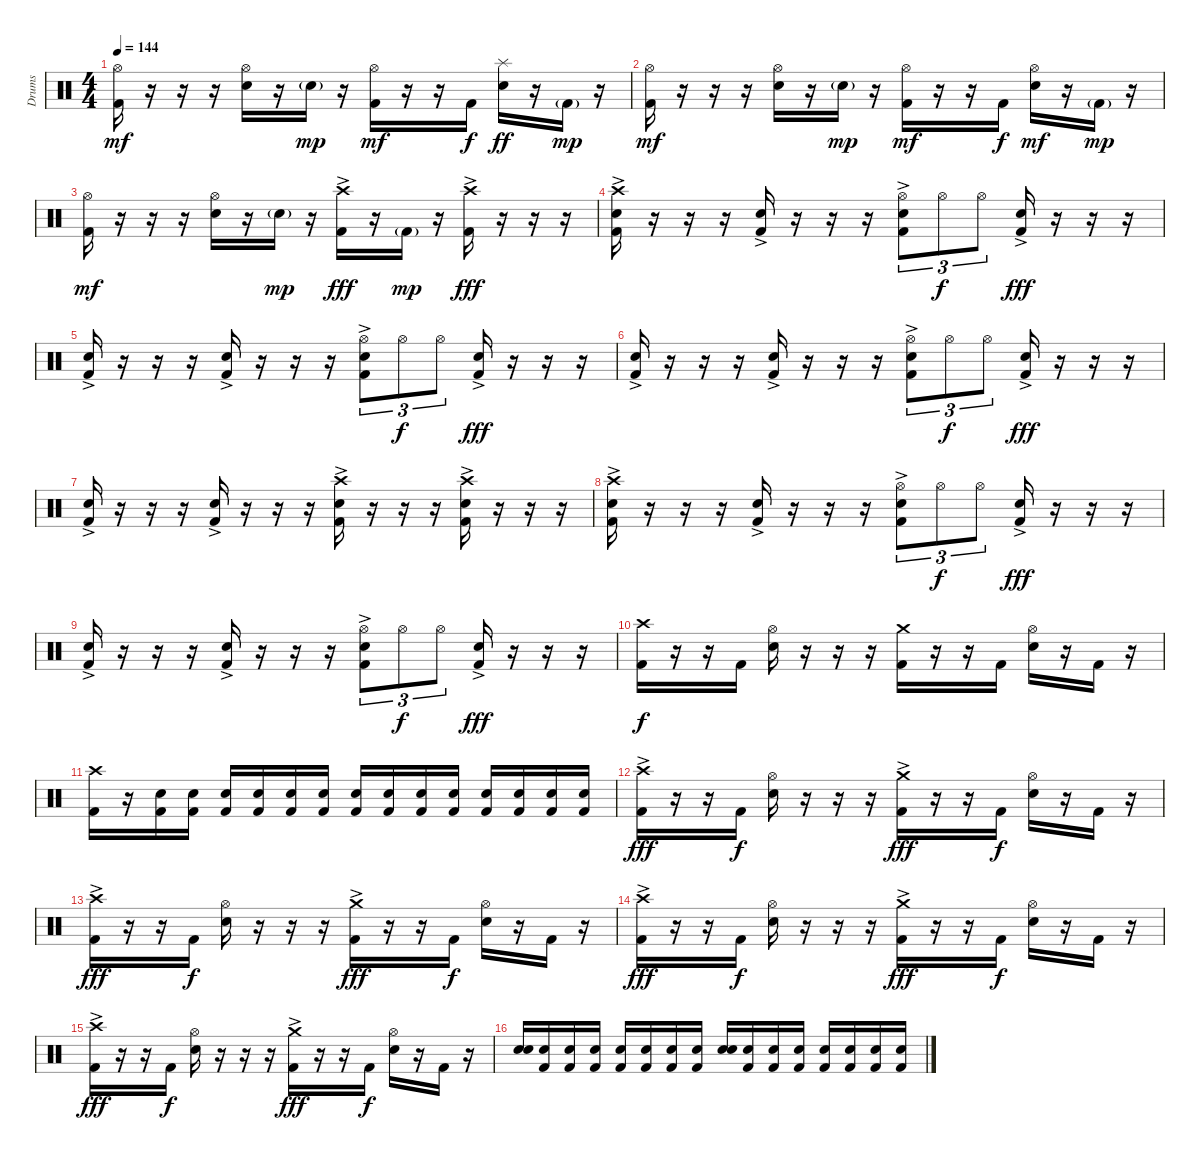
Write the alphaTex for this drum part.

\track ("Drums" "Drums") {instrument percussion}
\staff {score}
\articulation defaults
\ts (4 4)
\tempo 144
\clef neutral
\ks c
("Hi-Hat (open)" "Kick (hit) 2").16{dy mf} r.16 r.16 r.16 ("Hi-Hat (open)" "Electric Snare (hit)").16 r.16 "Electric Snare (hit)"{g}.16{dy mp} r.16 ("Hi-Hat (open)" "Kick (hit) 2").16{dy mf} r.16 r.16 "Kick (hit) 2".16{dy f} ("Splash (hit)" "Electric Snare (hit)").16{dy ff} r.16 "Kick (hit) 2"{g}.16{dy mp} r.16 |
("Hi-Hat (open)" "Kick (hit) 2").16{dy mf} r.16 r.16 r.16 ("Hi-Hat (open)" "Electric Snare (hit)").16 r.16 "Electric Snare (hit)"{g}.16{dy mp} r.16 ("Hi-Hat (open)" "Kick (hit) 2").16{dy mf} r.16 r.16 "Kick (hit) 2".16{dy f} ("Hi-Hat (open)" "Electric Snare (hit)").16{dy mf} r.16 "Kick (hit) 2"{g}.16{dy mp} r.16 |
("Hi-Hat (open)" "Kick (hit) 2").16{dy mf} r.16 r.16 r.16 ("Hi-Hat (open)" "Electric Snare (hit)").16 r.16 "Electric Snare (hit)"{g}.16{dy mp} r.16 ("Crash high (hit)"{ac} "Kick (hit) 2"{ac}).16{dy fff} r.16 "Kick (hit) 2"{g}.16{dy mp} r.16 ("Crash high (hit)"{ac} "Kick (hit) 2"{ac}).16{dy fff} r.16 r.16 r.16 |
("Crash high (hit)"{ac} "Electric Snare (hit)"{ac} "Kick (hit) 2"{ac}).16 r.16 r.16 r.16 ("Electric Snare (hit)"{ac} "Kick (hit) 2"{ac}).16 r.16 r.16 r.16 ("Hi-Hat (open)" "Electric Snare (hit)"{ac} "Kick (hit) 2"{ac}).8{tu (3 2)} "Hi-Hat (open)".8{tu (3 2) dy f} "Hi-Hat (open)".8{tu (3 2)} ("Electric Snare (hit)"{ac} "Kick (hit) 2"{ac}).16{dy fff} r.16 r.16 r.16 |
("Electric Snare (hit)"{ac} "Kick (hit) 2"{ac}).16 r.16 r.16 r.16 ("Electric Snare (hit)"{ac} "Kick (hit) 2"{ac}).16 r.16 r.16 r.16 ("Hi-Hat (open)" "Electric Snare (hit)"{ac} "Kick (hit) 2"{ac}).8{tu (3 2)} "Hi-Hat (open)".8{tu (3 2) dy f} "Hi-Hat (open)".8{tu (3 2)} ("Electric Snare (hit)"{ac} "Kick (hit) 2"{ac}).16{dy fff} r.16 r.16 r.16 |
("Electric Snare (hit)"{ac} "Kick (hit) 2"{ac}).16 r.16 r.16 r.16 ("Electric Snare (hit)"{ac} "Kick (hit) 2"{ac}).16 r.16 r.16 r.16 ("Hi-Hat (open)" "Electric Snare (hit)"{ac} "Kick (hit) 2"{ac}).8{tu (3 2)} "Hi-Hat (open)".8{tu (3 2) dy f} "Hi-Hat (open)".8{tu (3 2)} ("Electric Snare (hit)"{ac} "Kick (hit) 2"{ac}).16{dy fff} r.16 r.16 r.16 |
("Electric Snare (hit)"{ac} "Kick (hit) 2"{ac}).16 r.16 r.16 r.16 ("Electric Snare (hit)"{ac} "Kick (hit) 2"{ac}).16 r.16 r.16 r.16 ("Crash high (hit)"{ac} "Electric Snare (hit)"{ac} "Kick (hit) 2"{ac}).16 r.16 r.16 r.16 ("Crash high (hit)"{ac} "Electric Snare (hit)"{ac} "Kick (hit) 2"{ac}).16 r.16 r.16 r.16 |
("Crash high (hit)"{ac} "Electric Snare (hit)"{ac} "Kick (hit) 2"{ac}).16 r.16 r.16 r.16 ("Electric Snare (hit)"{ac} "Kick (hit) 2"{ac}).16 r.16 r.16 r.16 ("Hi-Hat (open)" "Electric Snare (hit)"{ac} "Kick (hit) 2"{ac}).8{tu (3 2)} "Hi-Hat (open)".8{tu (3 2) dy f} "Hi-Hat (open)".8{tu (3 2)} ("Electric Snare (hit)"{ac} "Kick (hit) 2"{ac}).16{dy fff} r.16 r.16 r.16 |
("Electric Snare (hit)"{ac} "Kick (hit) 2"{ac}).16 r.16 r.16 r.16 ("Electric Snare (hit)"{ac} "Kick (hit) 2"{ac}).16 r.16 r.16 r.16 ("Hi-Hat (open)" "Electric Snare (hit)"{ac} "Kick (hit) 2"{ac}).8{tu (3 2)} "Hi-Hat (open)".8{tu (3 2) dy f} "Hi-Hat (open)".8{tu (3 2)} ("Electric Snare (hit)"{ac} "Kick (hit) 2"{ac}).16{dy fff} r.16 r.16 r.16 |
("Crash high (hit)" "Kick (hit) 2").16{dy f} r.16 r.16 "Kick (hit) 2".16 ("Hi-Hat (open)" "Electric Snare (hit)").16 r.16 r.16 r.16 ("Crash medium (hit)" "Kick (hit) 2").16 r.16 r.16 "Kick (hit) 2".16 ("Hi-Hat (open)" "Electric Snare (hit)").16 r.16 "Kick (hit) 2".16 r.16 |
("Crash high (hit)" "Kick (hit) 2").16 r.16 ("Electric Snare (hit)" "Kick (hit) 2").16 ("Electric Snare (hit)" "Kick (hit) 2").16 ("Electric Snare (hit)" "Kick (hit) 2").16 ("Electric Snare (hit)" "Kick (hit) 2").16 ("Electric Snare (hit)" "Kick (hit) 2").16 ("Electric Snare (hit)" "Kick (hit) 2").16 ("Electric Snare (hit)" "Kick (hit) 2").16 ("Electric Snare (hit)" "Kick (hit) 2").16 ("Electric Snare (hit)" "Kick (hit) 2").16 ("Electric Snare (hit)" "Kick (hit) 2").16 ("Electric Snare (hit)" "Kick (hit) 2").16 ("Electric Snare (hit)" "Kick (hit) 2").16 ("Electric Snare (hit)" "Kick (hit) 2").16 ("Electric Snare (hit)" "Kick (hit) 2").16 |
("Crash high (hit)"{ac} "Kick (hit) 2").16{dy fff} r.16 r.16 "Kick (hit) 2".16{dy f} ("Hi-Hat (open)" "Electric Snare (hit)").16 r.16 r.16 r.16 ("Crash medium (hit)"{ac} "Kick (hit) 2").16{dy fff} r.16 r.16 "Kick (hit) 2".16{dy f} ("Hi-Hat (open)" "Electric Snare (hit)").16 r.16 "Kick (hit) 2".16 r.16 |
("Crash high (hit)"{ac} "Kick (hit) 2").16{dy fff} r.16 r.16 "Kick (hit) 2".16{dy f} ("Hi-Hat (open)" "Electric Snare (hit)").16 r.16 r.16 r.16 ("Crash medium (hit)"{ac} "Kick (hit) 2").16{dy fff} r.16 r.16 "Kick (hit) 2".16{dy f} ("Hi-Hat (open)" "Electric Snare (hit)").16 r.16 "Kick (hit) 2".16 r.16 |
("Crash high (hit)"{ac} "Kick (hit) 2").16{dy fff} r.16 r.16 "Kick (hit) 2".16{dy f} ("Hi-Hat (open)" "Electric Snare (hit)").16 r.16 r.16 r.16 ("Crash medium (hit)"{ac} "Kick (hit) 2").16{dy fff} r.16 r.16 "Kick (hit) 2".16{dy f} ("Hi-Hat (open)" "Electric Snare (hit)").16 r.16 "Kick (hit) 2".16 r.16 |
("Crash high (hit)"{ac} "Kick (hit) 2").16{dy fff} r.16 r.16 "Kick (hit) 2".16{dy f} ("Hi-Hat (open)" "Electric Snare (hit)").16 r.16 r.16 r.16 ("Crash medium (hit)"{ac} "Kick (hit) 2").16{dy fff} r.16 r.16 "Kick (hit) 2".16{dy f} ("Hi-Hat (open)" "Electric Snare (hit)").16 r.16 "Kick (hit) 2".16 r.16 |
("Electric Snare (hit)" "Electric Snare (hit)").16 ("Electric Snare (hit)" "Kick (hit) 2").16 ("Electric Snare (hit)" "Kick (hit) 2").16 ("Electric Snare (hit)" "Kick (hit) 2").16 ("Electric Snare (hit)" "Kick (hit) 2").16 ("Electric Snare (hit)" "Kick (hit) 2").16 ("Electric Snare (hit)" "Kick (hit) 2").16 ("Electric Snare (hit)" "Kick (hit) 2").16 ("Electric Snare (hit)" "Electric Snare (hit)").16 ("Electric Snare (hit)" "Kick (hit) 2").16 ("Electric Snare (hit)" "Kick (hit) 2").16 ("Electric Snare (hit)" "Kick (hit) 2").16 ("Electric Snare (hit)" "Kick (hit) 2").16 ("Electric Snare (hit)" "Kick (hit) 2").16 ("Electric Snare (hit)" "Kick (hit) 2").16 ("Electric Snare (hit)" "Kick (hit) 2").16
